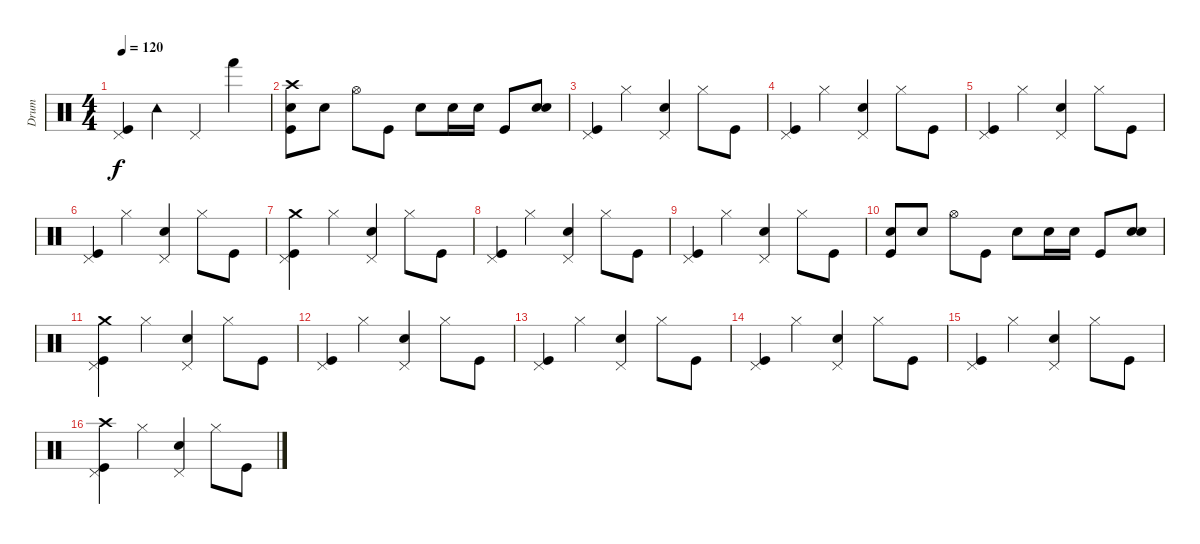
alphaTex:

\track ("Drum" "Drum") {instrument percussion}
\staff {score}
\articulation defaults
\ts (4 4)
\tempo 120
\clef neutral
\ks c
("Pedal Hi-Hat (hit)" "Kick (hit)").4{dy f} "Tambourine (hit)".4 "Pedal Hi-Hat (hit)".4 "Hand (hit)".4 |
("Electric Snare (hit)" "Crash high (hit)" "Kick (hit)").8 "Snare (hit) 2".8 "Hi-Hat (open)".8 "Kick (hit)".8 "Snare (hit) 2".8 "Electric Snare (hit)".16 "Electric Snare (hit)".16 "Kick (hit)".8 ("Electric Snare (hit)" "Snare (hit) 2").8 |
("Pedal Hi-Hat (hit)" "Kick (hit)").4 "Hi-Hat (closed)".4 ("Pedal Hi-Hat (hit)" "Snare (hit) 2").4 "Hi-Hat (closed)".8 "Kick (hit)".8 |
("Pedal Hi-Hat (hit)" "Kick (hit)").4 "Hi-Hat (closed)".4 ("Pedal Hi-Hat (hit)" "Snare (hit) 2").4 "Hi-Hat (closed)".8 "Kick (hit)".8 |
("Pedal Hi-Hat (hit)" "Kick (hit)").4 "Hi-Hat (closed)".4 ("Pedal Hi-Hat (hit)" "Snare (hit) 2").4 "Hi-Hat (closed)".8 "Kick (hit)".8 |
("Pedal Hi-Hat (hit)" "Kick (hit)").4 "Hi-Hat (closed)".4 ("Pedal Hi-Hat (hit)" "Snare (hit) 2").4 "Hi-Hat (closed)".8 "Kick (hit)".8 |
("Pedal Hi-Hat (hit)" "Crash medium (hit)" "Kick (hit)").4 "Hi-Hat (closed)".4 ("Pedal Hi-Hat (hit)" "Snare (hit) 2").4 "Hi-Hat (closed)".8 "Kick (hit)".8 |
("Pedal Hi-Hat (hit)" "Kick (hit)").4 "Hi-Hat (closed)".4 ("Pedal Hi-Hat (hit)" "Snare (hit) 2").4 "Hi-Hat (closed)".8 "Kick (hit)".8 |
("Pedal Hi-Hat (hit)" "Kick (hit)").4 "Hi-Hat (closed)".4 ("Pedal Hi-Hat (hit)" "Snare (hit) 2").4 "Hi-Hat (closed)".8 "Kick (hit)".8 |
("Electric Snare (hit)" "Kick (hit)").8 "Snare (hit) 2".8 "Hi-Hat (open)".8 "Kick (hit)".8 "Snare (hit) 2".8 "Electric Snare (hit)".16 "Electric Snare (hit)".16 "Kick (hit)".8 ("Electric Snare (hit)" "Snare (hit) 2").8 |
("Pedal Hi-Hat (hit)" "Crash medium (hit)" "Kick (hit)").4 "Hi-Hat (closed)".4 ("Pedal Hi-Hat (hit)" "Snare (hit) 2").4 "Hi-Hat (closed)".8 "Kick (hit)".8 |
("Pedal Hi-Hat (hit)" "Kick (hit)").4 "Hi-Hat (closed)".4 ("Pedal Hi-Hat (hit)" "Snare (hit) 2").4 "Hi-Hat (closed)".8 "Kick (hit)".8 |
("Pedal Hi-Hat (hit)" "Kick (hit)").4 "Hi-Hat (closed)".4 ("Pedal Hi-Hat (hit)" "Snare (hit) 2").4 "Hi-Hat (closed)".8 "Kick (hit)".8 |
("Pedal Hi-Hat (hit)" "Kick (hit)").4 "Hi-Hat (closed)".4 ("Pedal Hi-Hat (hit)" "Snare (hit) 2").4 "Hi-Hat (closed)".8 "Kick (hit)".8 |
("Pedal Hi-Hat (hit)" "Kick (hit)").4 "Hi-Hat (closed)".4 ("Pedal Hi-Hat (hit)" "Snare (hit) 2").4 "Hi-Hat (closed)".8 "Kick (hit)".8 |
("Pedal Hi-Hat (hit)" "Crash high (hit)" "Kick (hit)").4 "Hi-Hat (closed)".4 ("Pedal Hi-Hat (hit)" "Snare (hit) 2").4 "Hi-Hat (closed)".8 "Kick (hit)".8
